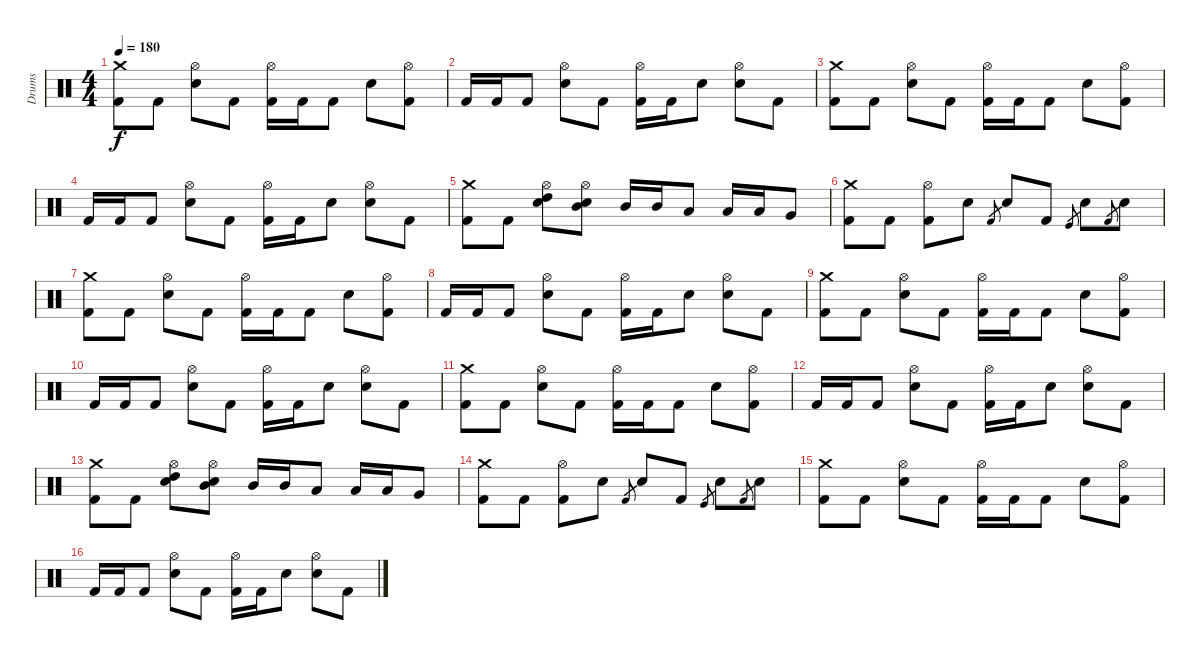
\track ("Drums" "Drums") {instrument percussion}
\staff {score}
\articulation defaults
\ts (4 4)
\tempo 180
\clef neutral
\ks c
("Crash medium (hit)" "Kick (hit) 2").8{dy f} "Kick (hit) 2".8 ("Hi-Hat (open)" "Electric Snare (hit)").8 "Kick (hit) 2".8 ("Hi-Hat (open)" "Kick (hit) 2").16 "Kick (hit) 2".16 "Kick (hit) 2".8 "Electric Snare (hit)".8 ("Hi-Hat (open)" "Kick (hit) 2").8 |
"Kick (hit) 2".16 "Kick (hit) 2".16 "Kick (hit) 2".8 ("Hi-Hat (open)" "Electric Snare (hit)").8 "Kick (hit) 2".8 ("Hi-Hat (open)" "Kick (hit) 2").16 "Kick (hit) 2".16 "Electric Snare (hit)".8 ("Hi-Hat (open)" "Snare (hit) 2").8 "Kick (hit) 2".8 |
("Crash medium (hit)" "Kick (hit) 2").8 "Kick (hit) 2".8 ("Hi-Hat (open)" "Electric Snare (hit)").8 "Kick (hit) 2".8 ("Hi-Hat (open)" "Kick (hit) 2").16 "Kick (hit) 2".16 "Kick (hit) 2".8 "Electric Snare (hit)".8 ("Hi-Hat (open)" "Kick (hit) 2").8 |
"Kick (hit) 2".16 "Kick (hit) 2".16 "Kick (hit) 2".8 ("Hi-Hat (open)" "Electric Snare (hit)").8 "Kick (hit) 2".8 ("Hi-Hat (open)" "Kick (hit) 2").16 "Kick (hit) 2".16 "Electric Snare (hit)".8 ("Hi-Hat (open)" "Snare (hit) 2").8 "Kick (hit) 2".8 |
("Crash medium (hit)" "Kick (hit) 2").8 "Kick (hit) 2".8 ("Hi-Hat (open)" "High Tom (hit)" "Electric Snare (hit)").8 ("Hi-Hat (open)" "Mid Tom (hit)" "Electric Snare (hit)").8 "Mid Tom (hit)".16 "Mid Tom (hit)".16 "Low Tom (hit)".8 "Low Tom (hit)".16 "Low Tom (hit)".16 "Very Low Tom (hit)".8 |
("Kick (hit) 2" "Crash medium (hit)").8 "Kick (hit) 2".8 ("Kick (hit) 2" "Hi-Hat (open)").8 "Electric Snare (hit)".8 "Kick (hit) 2".8{gr} "Electric Snare (hit)".8 "Kick (hit) 2".8 "Kick (hit)".8{gr} "Snare (hit) 2".8 "Kick (hit) 2".8{gr} "Electric Snare (hit)".8 |
("Crash medium (hit)" "Kick (hit) 2").8 "Kick (hit) 2".8 ("Hi-Hat (open)" "Electric Snare (hit)").8 "Kick (hit) 2".8 ("Hi-Hat (open)" "Kick (hit) 2").16 "Kick (hit) 2".16 "Kick (hit) 2".8 "Electric Snare (hit)".8 ("Hi-Hat (open)" "Kick (hit) 2").8 |
"Kick (hit) 2".16 "Kick (hit) 2".16 "Kick (hit) 2".8 ("Hi-Hat (open)" "Electric Snare (hit)").8 "Kick (hit) 2".8 ("Hi-Hat (open)" "Kick (hit) 2").16 "Kick (hit) 2".16 "Electric Snare (hit)".8 ("Hi-Hat (open)" "Snare (hit) 2").8 "Kick (hit) 2".8 |
("Crash medium (hit)" "Kick (hit) 2").8 "Kick (hit) 2".8 ("Hi-Hat (open)" "Electric Snare (hit)").8 "Kick (hit) 2".8 ("Hi-Hat (open)" "Kick (hit) 2").16 "Kick (hit) 2".16 "Kick (hit) 2".8 "Electric Snare (hit)".8 ("Hi-Hat (open)" "Kick (hit) 2").8 |
"Kick (hit) 2".16 "Kick (hit) 2".16 "Kick (hit) 2".8 ("Hi-Hat (open)" "Electric Snare (hit)").8 "Kick (hit) 2".8 ("Hi-Hat (open)" "Kick (hit) 2").16 "Kick (hit) 2".16 "Electric Snare (hit)".8 ("Hi-Hat (open)" "Snare (hit) 2").8 "Kick (hit) 2".8 |
("Crash medium (hit)" "Kick (hit) 2").8 "Kick (hit) 2".8 ("Hi-Hat (open)" "Electric Snare (hit)").8 "Kick (hit) 2".8 ("Hi-Hat (open)" "Kick (hit) 2").16 "Kick (hit) 2".16 "Kick (hit) 2".8 "Electric Snare (hit)".8 ("Hi-Hat (open)" "Kick (hit) 2").8 |
"Kick (hit) 2".16 "Kick (hit) 2".16 "Kick (hit) 2".8 ("Hi-Hat (open)" "Electric Snare (hit)").8 "Kick (hit) 2".8 ("Hi-Hat (open)" "Kick (hit) 2").16 "Kick (hit) 2".16 "Electric Snare (hit)".8 ("Hi-Hat (open)" "Snare (hit) 2").8 "Kick (hit) 2".8 |
("Crash medium (hit)" "Kick (hit) 2").8 "Kick (hit) 2".8 ("Hi-Hat (open)" "High Tom (hit)" "Electric Snare (hit)").8 ("Hi-Hat (open)" "Mid Tom (hit)" "Electric Snare (hit)").8 "Mid Tom (hit)".16 "Mid Tom (hit)".16 "Low Tom (hit)".8 "Low Tom (hit)".16 "Low Tom (hit)".16 "Very Low Tom (hit)".8 |
("Kick (hit) 2" "Crash medium (hit)").8 "Kick (hit) 2".8 ("Kick (hit) 2" "Hi-Hat (open)").8 "Electric Snare (hit)".8 "Kick (hit) 2".8{gr} "Electric Snare (hit)".8 "Kick (hit) 2".8 "Kick (hit)".8{gr} "Snare (hit) 2".8 "Kick (hit) 2".8{gr} "Electric Snare (hit)".8 |
("Crash medium (hit)" "Kick (hit) 2").8 "Kick (hit) 2".8 ("Hi-Hat (open)" "Electric Snare (hit)").8 "Kick (hit) 2".8 ("Hi-Hat (open)" "Kick (hit) 2").16 "Kick (hit) 2".16 "Kick (hit) 2".8 "Electric Snare (hit)".8 ("Hi-Hat (open)" "Kick (hit) 2").8 |
"Kick (hit) 2".16 "Kick (hit) 2".16 "Kick (hit) 2".8 ("Hi-Hat (open)" "Electric Snare (hit)").8 "Kick (hit) 2".8 ("Hi-Hat (open)" "Kick (hit) 2").16 "Kick (hit) 2".16 "Electric Snare (hit)".8 ("Hi-Hat (open)" "Snare (hit) 2").8 "Kick (hit) 2".8
